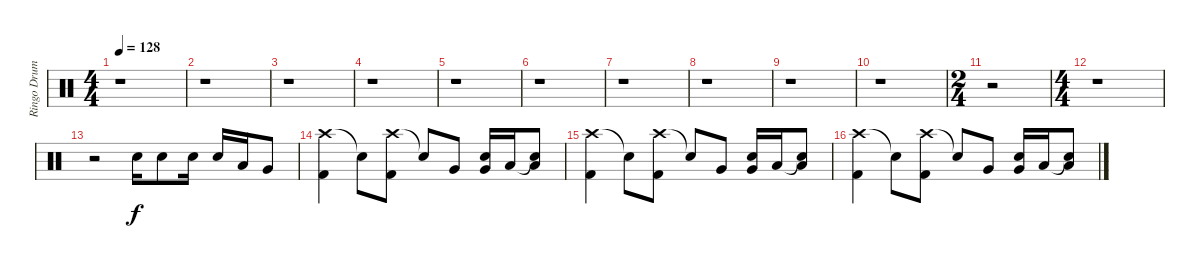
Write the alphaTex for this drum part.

\track ("Ringo Drums" "Ringo Drum") {instrument percussion}
\staff {score}
\articulation defaults
\ts (4 4)
\tempo 128
\tempo 81
\tempo 128
\clef neutral
\ks c
r.1{dy f} |
r.1 |
r.1 |
r.1 |
r.1 |
r.1 |
r.1 |
r.1 |
r.1 |
r.1 |
\ts (2 4)
r.2 |
\ts (4 4)
r.1 |
r.2 "Snare (hit) 2".16 "Snare (hit) 2".8 "Snare (hit) 2".16 "Snare (hit) 2".16 "Low Floor Tom (hit)".16 "Very Low Tom (hit)".8 |
("Crash high (hit)" "Kick (hit) 2").4 "Snare (hit)"{t}.8 ("Crash high (hit)" "Kick (hit) 2").8 "Snare (hit)"{t}.8 "Very Low Tom (hit)".8 ("Very Low Tom (hit)" "Snare (hit) 2").16 "Low Floor Tom (hit)".16 ("Snare (hit)"{t} "Low Floor Tom (hit)").8 |
("Crash high (hit)" "Kick (hit) 2").4 "Snare (hit)"{t}.8 ("Crash high (hit)" "Kick (hit) 2").8 "Snare (hit)"{t}.8 "Very Low Tom (hit)".8 ("Very Low Tom (hit)" "Snare (hit) 2").16 "Low Floor Tom (hit)".16 ("Snare (hit)"{t} "Low Floor Tom (hit)").8 |
("Crash high (hit)" "Kick (hit) 2").4 "Snare (hit)"{t}.8 ("Crash high (hit)" "Kick (hit) 2").8 "Snare (hit)"{t}.8 "Very Low Tom (hit)".8 ("Very Low Tom (hit)" "Snare (hit) 2").16 "Low Floor Tom (hit)".16 ("Snare (hit)"{t} "Low Floor Tom (hit)").8
